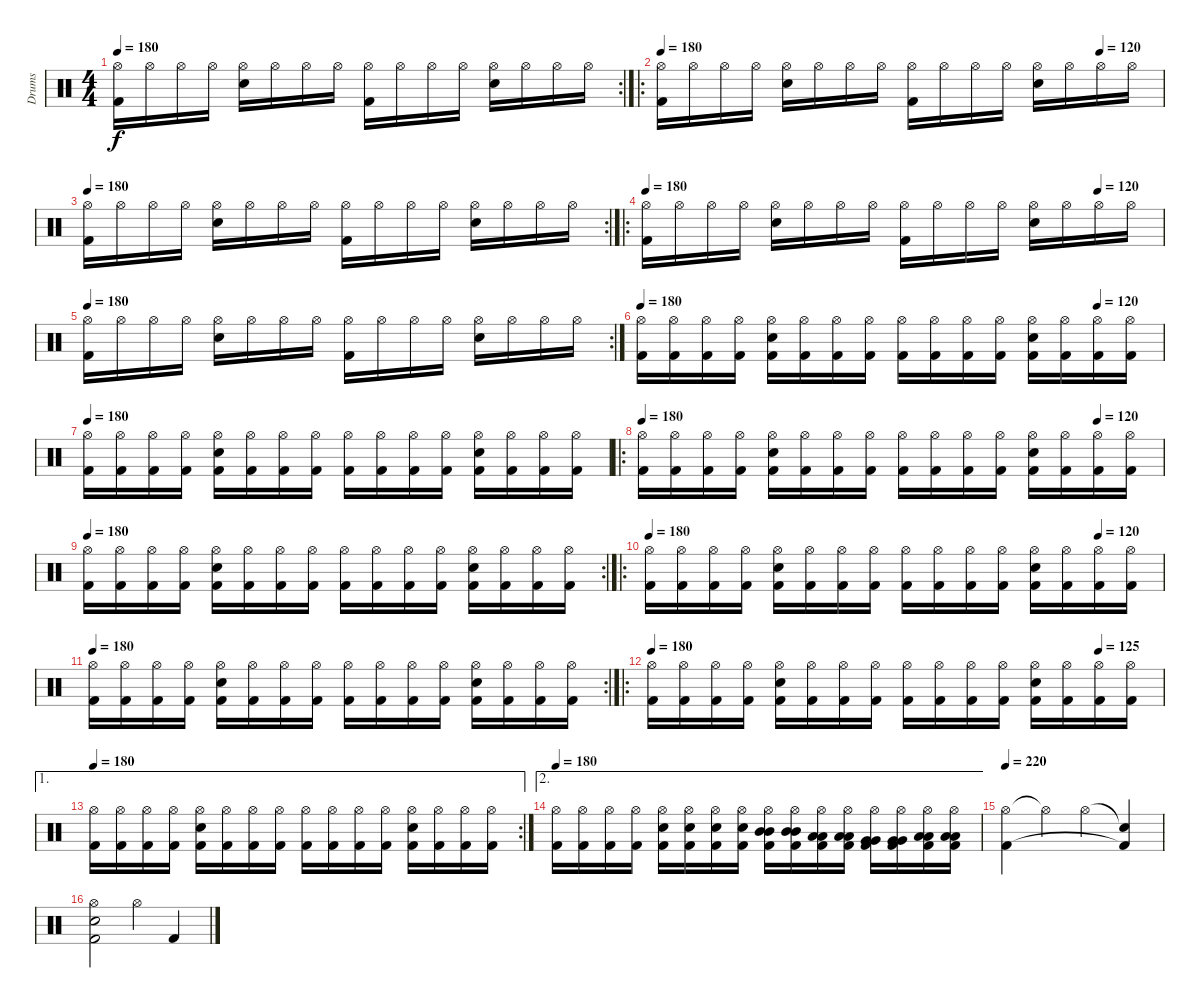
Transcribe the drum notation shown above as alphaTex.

\track ("Drums" "Drums") {instrument percussion}
\staff {score}
\articulation defaults
\rc 2
\ts (4 4)
\tempo 180
\clef neutral
\ks c
("Hi-Hat (open)" "Kick (hit) 2").16{dy f} "Hi-Hat (open)".16 "Hi-Hat (open)".16 "Hi-Hat (open)".16 ("Hi-Hat (open)" "Snare (hit) 2").16 "Hi-Hat (open)".16 "Hi-Hat (open)".16 "Hi-Hat (open)".16 ("Hi-Hat (open)" "Kick (hit) 2").16 "Hi-Hat (open)".16 "Hi-Hat (open)".16 "Hi-Hat (open)".16 ("Hi-Hat (open)" "Snare (hit) 2").16 "Hi-Hat (open)".16 "Hi-Hat (open)".16 "Hi-Hat (open)".16 |
\ro
\tempo 180
\tempo (120 0.875)
("Hi-Hat (open)" "Kick (hit) 2").16 "Hi-Hat (open)".16 "Hi-Hat (open)".16 "Hi-Hat (open)".16 ("Hi-Hat (open)" "Snare (hit) 2").16 "Hi-Hat (open)".16 "Hi-Hat (open)".16 "Hi-Hat (open)".16 ("Hi-Hat (open)" "Kick (hit) 2").16 "Hi-Hat (open)".16 "Hi-Hat (open)".16 "Hi-Hat (open)".16 ("Hi-Hat (open)" "Snare (hit) 2").16 "Hi-Hat (open)".16 "Hi-Hat (open)".16 "Hi-Hat (open)".16 |
\rc 2
\tempo 180
("Hi-Hat (open)" "Kick (hit) 2").16 "Hi-Hat (open)".16 "Hi-Hat (open)".16 "Hi-Hat (open)".16 ("Hi-Hat (open)" "Snare (hit) 2").16 "Hi-Hat (open)".16 "Hi-Hat (open)".16 "Hi-Hat (open)".16 ("Hi-Hat (open)" "Kick (hit) 2").16 "Hi-Hat (open)".16 "Hi-Hat (open)".16 "Hi-Hat (open)".16 ("Hi-Hat (open)" "Snare (hit) 2").16 "Hi-Hat (open)".16 "Hi-Hat (open)".16 "Hi-Hat (open)".16 |
\ro
\tempo 180
\tempo (120 0.875)
("Hi-Hat (open)" "Kick (hit) 2").16 "Hi-Hat (open)".16 "Hi-Hat (open)".16 "Hi-Hat (open)".16 ("Hi-Hat (open)" "Snare (hit) 2").16 "Hi-Hat (open)".16 "Hi-Hat (open)".16 "Hi-Hat (open)".16 ("Hi-Hat (open)" "Kick (hit) 2").16 "Hi-Hat (open)".16 "Hi-Hat (open)".16 "Hi-Hat (open)".16 ("Hi-Hat (open)" "Snare (hit) 2").16 "Hi-Hat (open)".16 "Hi-Hat (open)".16 "Hi-Hat (open)".16 |
\rc 2
\tempo 180
("Hi-Hat (open)" "Kick (hit) 2").16 "Hi-Hat (open)".16 "Hi-Hat (open)".16 "Hi-Hat (open)".16 ("Hi-Hat (open)" "Snare (hit) 2").16 "Hi-Hat (open)".16 "Hi-Hat (open)".16 "Hi-Hat (open)".16 ("Hi-Hat (open)" "Kick (hit) 2").16 "Hi-Hat (open)".16 "Hi-Hat (open)".16 "Hi-Hat (open)".16 ("Hi-Hat (open)" "Snare (hit) 2").16 "Hi-Hat (open)".16 "Hi-Hat (open)".16 "Hi-Hat (open)".16 |
\tempo 180
\tempo (120 0.875)
("Hi-Hat (open)" "Kick (hit) 2").16 ("Hi-Hat (open)" "Kick (hit) 2").16 ("Hi-Hat (open)" "Kick (hit) 2").16 ("Hi-Hat (open)" "Kick (hit) 2").16 ("Hi-Hat (open)" "Snare (hit) 2" "Kick (hit) 2").16 ("Hi-Hat (open)" "Kick (hit) 2").16 ("Hi-Hat (open)" "Kick (hit) 2").16 ("Hi-Hat (open)" "Kick (hit) 2").16 ("Hi-Hat (open)" "Kick (hit) 2").16 ("Hi-Hat (open)" "Kick (hit) 2").16 ("Hi-Hat (open)" "Kick (hit) 2").16 ("Hi-Hat (open)" "Kick (hit) 2").16 ("Hi-Hat (open)" "Snare (hit) 2" "Kick (hit) 2").16 ("Hi-Hat (open)" "Kick (hit) 2").16 ("Hi-Hat (open)" "Kick (hit) 2").16 ("Hi-Hat (open)" "Kick (hit) 2").16 |
\tempo 180
("Hi-Hat (open)" "Kick (hit) 2").16 ("Hi-Hat (open)" "Kick (hit) 2").16 ("Hi-Hat (open)" "Kick (hit) 2").16 ("Hi-Hat (open)" "Kick (hit) 2").16 ("Hi-Hat (open)" "Snare (hit) 2" "Kick (hit) 2").16 ("Hi-Hat (open)" "Kick (hit) 2").16 ("Hi-Hat (open)" "Kick (hit) 2").16 ("Hi-Hat (open)" "Kick (hit) 2").16 ("Hi-Hat (open)" "Kick (hit) 2").16 ("Hi-Hat (open)" "Kick (hit) 2").16 ("Hi-Hat (open)" "Kick (hit) 2").16 ("Hi-Hat (open)" "Kick (hit) 2").16 ("Hi-Hat (open)" "Snare (hit) 2" "Kick (hit) 2").16 ("Hi-Hat (open)" "Kick (hit) 2").16 ("Hi-Hat (open)" "Kick (hit) 2").16 ("Hi-Hat (open)" "Kick (hit) 2").16 |
\ro
\tempo 180
\tempo (120 0.875)
("Hi-Hat (open)" "Kick (hit) 2").16 ("Hi-Hat (open)" "Kick (hit) 2").16 ("Hi-Hat (open)" "Kick (hit) 2").16 ("Hi-Hat (open)" "Kick (hit) 2").16 ("Hi-Hat (open)" "Snare (hit) 2" "Kick (hit) 2").16 ("Hi-Hat (open)" "Kick (hit) 2").16 ("Hi-Hat (open)" "Kick (hit) 2").16 ("Hi-Hat (open)" "Kick (hit) 2").16 ("Hi-Hat (open)" "Kick (hit) 2").16 ("Hi-Hat (open)" "Kick (hit) 2").16 ("Hi-Hat (open)" "Kick (hit) 2").16 ("Hi-Hat (open)" "Kick (hit) 2").16 ("Hi-Hat (open)" "Snare (hit) 2" "Kick (hit) 2").16 ("Hi-Hat (open)" "Kick (hit) 2").16 ("Hi-Hat (open)" "Kick (hit) 2").16 ("Hi-Hat (open)" "Kick (hit) 2").16 |
\rc 2
\tempo 180
("Hi-Hat (open)" "Kick (hit) 2").16 ("Hi-Hat (open)" "Kick (hit) 2").16 ("Hi-Hat (open)" "Kick (hit) 2").16 ("Hi-Hat (open)" "Kick (hit) 2").16 ("Hi-Hat (open)" "Snare (hit) 2" "Kick (hit) 2").16 ("Hi-Hat (open)" "Kick (hit) 2").16 ("Hi-Hat (open)" "Kick (hit) 2").16 ("Hi-Hat (open)" "Kick (hit) 2").16 ("Hi-Hat (open)" "Kick (hit) 2").16 ("Hi-Hat (open)" "Kick (hit) 2").16 ("Hi-Hat (open)" "Kick (hit) 2").16 ("Hi-Hat (open)" "Kick (hit) 2").16 ("Hi-Hat (open)" "Snare (hit) 2" "Kick (hit) 2").16 ("Hi-Hat (open)" "Kick (hit) 2").16 ("Hi-Hat (open)" "Kick (hit) 2").16 ("Hi-Hat (open)" "Kick (hit) 2").16 |
\ro
\tempo 180
\tempo (120 0.875)
("Hi-Hat (open)" "Kick (hit) 2").16 ("Hi-Hat (open)" "Kick (hit) 2").16 ("Hi-Hat (open)" "Kick (hit) 2").16 ("Hi-Hat (open)" "Kick (hit) 2").16 ("Hi-Hat (open)" "Snare (hit) 2" "Kick (hit) 2").16 ("Hi-Hat (open)" "Kick (hit) 2").16 ("Hi-Hat (open)" "Kick (hit) 2").16 ("Hi-Hat (open)" "Kick (hit) 2").16 ("Hi-Hat (open)" "Kick (hit) 2").16 ("Hi-Hat (open)" "Kick (hit) 2").16 ("Hi-Hat (open)" "Kick (hit) 2").16 ("Hi-Hat (open)" "Kick (hit) 2").16 ("Hi-Hat (open)" "Snare (hit) 2" "Kick (hit) 2").16 ("Hi-Hat (open)" "Kick (hit) 2").16 ("Hi-Hat (open)" "Kick (hit) 2").16 ("Hi-Hat (open)" "Kick (hit) 2").16 |
\rc 2
\tempo 180
("Hi-Hat (open)" "Kick (hit) 2").16 ("Hi-Hat (open)" "Kick (hit) 2").16 ("Hi-Hat (open)" "Kick (hit) 2").16 ("Hi-Hat (open)" "Kick (hit) 2").16 ("Hi-Hat (open)" "Snare (hit) 2" "Kick (hit) 2").16 ("Hi-Hat (open)" "Kick (hit) 2").16 ("Hi-Hat (open)" "Kick (hit) 2").16 ("Hi-Hat (open)" "Kick (hit) 2").16 ("Hi-Hat (open)" "Kick (hit) 2").16 ("Hi-Hat (open)" "Kick (hit) 2").16 ("Hi-Hat (open)" "Kick (hit) 2").16 ("Hi-Hat (open)" "Kick (hit) 2").16 ("Hi-Hat (open)" "Snare (hit) 2" "Kick (hit) 2").16 ("Hi-Hat (open)" "Kick (hit) 2").16 ("Hi-Hat (open)" "Kick (hit) 2").16 ("Hi-Hat (open)" "Kick (hit) 2").16 |
\ro
\tempo 180
\tempo (125 0.875)
("Hi-Hat (open)" "Kick (hit) 2").16 ("Hi-Hat (open)" "Kick (hit) 2").16 ("Hi-Hat (open)" "Kick (hit) 2").16 ("Hi-Hat (open)" "Kick (hit) 2").16 ("Hi-Hat (open)" "Snare (hit) 2" "Kick (hit) 2").16 ("Hi-Hat (open)" "Kick (hit) 2").16 ("Hi-Hat (open)" "Kick (hit) 2").16 ("Hi-Hat (open)" "Kick (hit) 2").16 ("Hi-Hat (open)" "Kick (hit) 2").16 ("Hi-Hat (open)" "Kick (hit) 2").16 ("Hi-Hat (open)" "Kick (hit) 2").16 ("Hi-Hat (open)" "Kick (hit) 2").16 ("Hi-Hat (open)" "Snare (hit) 2" "Kick (hit) 2").16 ("Hi-Hat (open)" "Kick (hit) 2").16 ("Hi-Hat (open)" "Kick (hit) 2").16 ("Hi-Hat (open)" "Kick (hit) 2").16 |
\ae 1
\rc 2
\tempo 180
("Hi-Hat (open)" "Kick (hit) 2").16 ("Hi-Hat (open)" "Kick (hit) 2").16 ("Hi-Hat (open)" "Kick (hit) 2").16 ("Hi-Hat (open)" "Kick (hit) 2").16 ("Hi-Hat (open)" "Snare (hit) 2" "Kick (hit) 2").16 ("Hi-Hat (open)" "Kick (hit) 2").16 ("Hi-Hat (open)" "Kick (hit) 2").16 ("Hi-Hat (open)" "Kick (hit) 2").16 ("Hi-Hat (open)" "Kick (hit) 2").16 ("Hi-Hat (open)" "Kick (hit) 2").16 ("Hi-Hat (open)" "Kick (hit) 2").16 ("Hi-Hat (open)" "Kick (hit) 2").16 ("Hi-Hat (open)" "Snare (hit) 2" "Kick (hit) 2").16 ("Hi-Hat (open)" "Kick (hit) 2").16 ("Hi-Hat (open)" "Kick (hit) 2").16 ("Hi-Hat (open)" "Kick (hit) 2").16 |
\ae 2
\tempo 180
("Hi-Hat (open)" "Kick (hit) 2").16 ("Hi-Hat (open)" "Kick (hit) 2").16 ("Hi-Hat (open)" "Kick (hit) 2").16 ("Hi-Hat (open)" "Kick (hit) 2").16 ("Hi-Hat (open)" "Snare (hit) 2" "Kick (hit) 2").16 ("Hi-Hat (open)" "Snare (hit) 2" "Kick (hit) 2").16 ("Hi-Hat (open)" "Snare (hit) 2" "Kick (hit) 2").16 ("Hi-Hat (open)" "Snare (hit) 2" "Kick (hit) 2").16 ("Hi-Hat (open)" "Mid Tom (hit)" "Mid Tom (hit)" "Kick (hit) 2").16 ("Hi-Hat (open)" "Mid Tom (hit)" "Mid Tom (hit)" "Kick (hit) 2").16 ("Hi-Hat (open)" "Low Tom (hit)" "Low Tom (hit)" "Kick (hit) 2").16 ("Hi-Hat (open)" "Low Tom (hit)" "Low Tom (hit)" "Kick (hit) 2").16 ("Hi-Hat (open)" "Very Low Tom (hit)" "Very Low Tom (hit)" "Kick (hit) 2").16 ("Hi-Hat (open)" "Very Low Tom (hit)" "Very Low Tom (hit)" "Kick (hit) 2").16 ("Hi-Hat (open)" "Low Floor Tom (hit)" "Low Floor Tom (hit)" "Kick (hit) 2").16 ("Hi-Hat (open)" "Low Floor Tom (hit)" "Low Floor Tom (hit)" "Kick (hit) 2").16 |
\tempo 220
("Hi-Hat (open)" "Kick (hit) 2").4 "Hi-Hat (open)"{t}.4 "Hi-Hat (open)".4 ("Snare (hit)"{t} "Kick (hit) 2"{t}).4 |
("Hi-Hat (open)" "Snare (hit) 2" "Kick (hit) 2").2 "Hi-Hat (open)".4 "Kick (hit) 2".4
